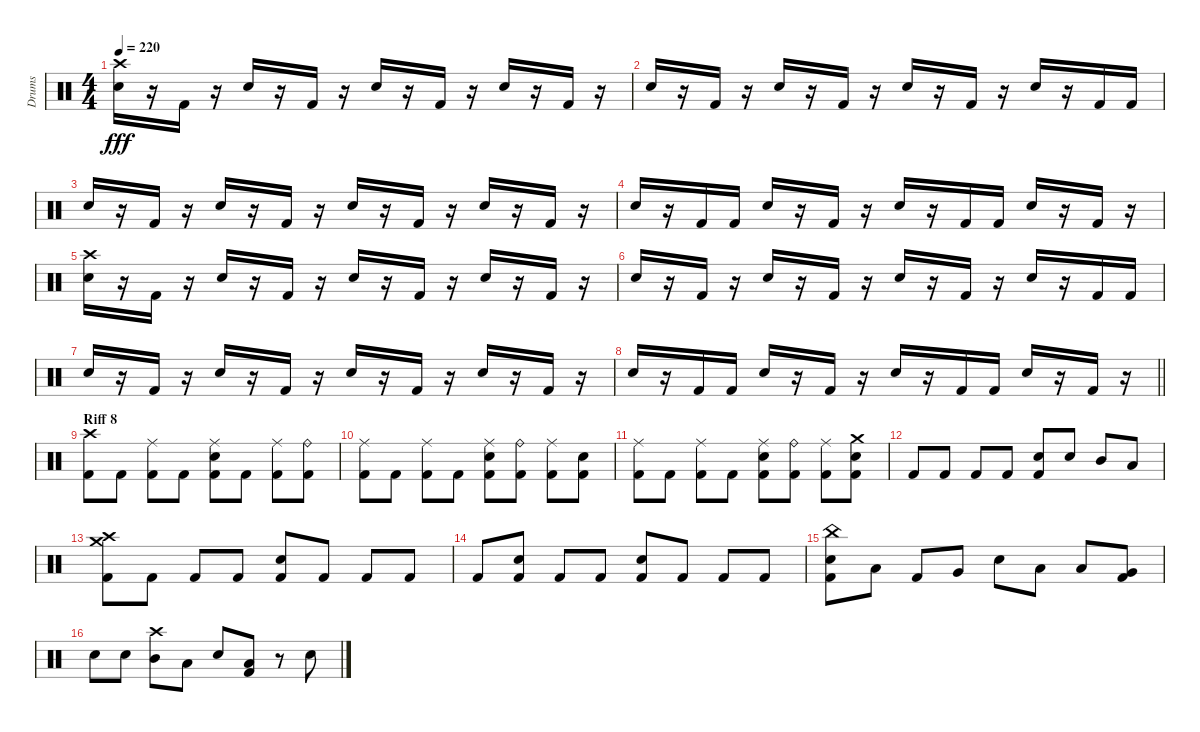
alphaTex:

\track ("Drums" "Drums") {instrument percussion}
\staff {score}
\articulation defaults
\ts (4 4)
\tempo 220
\clef neutral
\ks c
("Crash high (hit)" "Snare (hit) 2").16{dy fff} r.16 "Kick (hit) 2".16 r.16 "Snare (hit) 2".16 r.16 "Kick (hit) 2".16 r.16 "Snare (hit) 2".16 r.16 "Kick (hit) 2".16 r.16 "Snare (hit) 2".16 r.16 "Kick (hit) 2".16 r.16 |
"Snare (hit) 2".16 r.16 "Kick (hit) 2".16 r.16 "Snare (hit) 2".16 r.16 "Kick (hit) 2".16 r.16 "Snare (hit) 2".16 r.16 "Kick (hit) 2".16 r.16 "Snare (hit) 2".16 r.16 "Kick (hit) 2".16 "Kick (hit) 2".16 |
"Snare (hit) 2".16 r.16 "Kick (hit) 2".16 r.16 "Snare (hit) 2".16 r.16 "Kick (hit) 2".16 r.16 "Snare (hit) 2".16 r.16 "Kick (hit) 2".16 r.16 "Snare (hit) 2".16 r.16 "Kick (hit) 2".16 r.16 |
"Snare (hit) 2".16 r.16 "Kick (hit) 2".16 "Kick (hit) 2".16 "Snare (hit) 2".16 r.16 "Kick (hit) 2".16 r.16 "Snare (hit) 2".16 r.16 "Kick (hit) 2".16 "Kick (hit) 2".16 "Snare (hit) 2".16 r.16 "Kick (hit) 2".16 r.16 |
("Crash high (hit)" "Snare (hit) 2").16 r.16 "Kick (hit) 2".16 r.16 "Snare (hit) 2".16 r.16 "Kick (hit) 2".16 r.16 "Snare (hit) 2".16 r.16 "Kick (hit) 2".16 r.16 "Snare (hit) 2".16 r.16 "Kick (hit) 2".16 r.16 |
"Snare (hit) 2".16 r.16 "Kick (hit) 2".16 r.16 "Snare (hit) 2".16 r.16 "Kick (hit) 2".16 r.16 "Snare (hit) 2".16 r.16 "Kick (hit) 2".16 r.16 "Snare (hit) 2".16 r.16 "Kick (hit) 2".16 "Kick (hit) 2".16 |
"Snare (hit) 2".16 r.16 "Kick (hit) 2".16 r.16 "Snare (hit) 2".16 r.16 "Kick (hit) 2".16 r.16 "Snare (hit) 2".16 r.16 "Kick (hit) 2".16 r.16 "Snare (hit) 2".16 r.16 "Kick (hit) 2".16 r.16 |
\barLineRight lightlight "Snare (hit) 2".16
r.16 "Kick (hit) 2".16 "Kick (hit) 2".16 "Snare (hit) 2".16 r.16 "Kick (hit) 2".16 r.16 "Snare (hit) 2".16 r.16 "Kick (hit) 2".16 "Kick (hit) 2".16 "Snare (hit) 2".16 r.16 "Kick (hit) 2".16 r.16 |
\section ("" "Riff 8")
("Crash high (hit)" "Kick (hit) 2").8 "Kick (hit) 2".8 ("Kick (hit) 2" "Ride (middle)").8 "Kick (hit) 2".8 ("Kick (hit) 2" "Snare (hit) 2" "Ride (middle)").8 "Kick (hit) 2".8 ("Kick (hit) 2" "Ride (middle)").8 ("Kick (hit) 2" "Ride (bell)").8 |
("Kick (hit) 2" "Ride (middle)").8 "Kick (hit) 2".8 ("Kick (hit) 2" "Ride (middle)").8 "Kick (hit) 2".8 ("Kick (hit) 2" "Snare (hit) 2" "Ride (middle)").8 ("Kick (hit) 2" "Ride (bell)").8 ("Kick (hit) 2" "Ride (middle)").8 ("Kick (hit) 2" "Snare (hit) 2").8 |
("Kick (hit) 2" "Ride (middle)").8 "Kick (hit) 2".8 ("Kick (hit) 2" "Ride (middle)").8 "Kick (hit) 2".8 ("Kick (hit) 2" "Snare (hit) 2" "Ride (middle)").8 ("Kick (hit) 2" "Ride (bell)").8 ("Kick (hit) 2" "Ride (middle)").8 ("Crash medium (hit)" "Kick (hit) 2" "Snare (hit) 2").8 |
"Kick (hit) 2".8 "Kick (hit) 2".8 "Kick (hit) 2".8 "Kick (hit) 2".8 ("Kick (hit) 2" "Snare (hit) 2").8 "Snare (hit) 2".8 "Mid Tom (hit)".8 "Low Tom (hit)".8 |
("Crash high (hit)" "Crash medium (hit)" "Kick (hit) 2").8 "Kick (hit) 2".8 "Kick (hit) 2".8 "Kick (hit) 2".8 ("Kick (hit) 2" "Snare (hit) 2").8 "Kick (hit) 2".8 "Kick (hit) 2".8 "Kick (hit) 2".8 |
"Kick (hit) 2".8 ("Kick (hit) 2" "Snare (hit) 2").8 "Kick (hit) 2".8 "Kick (hit) 2".8 ("Kick (hit) 2" "Snare (hit) 2").8 "Kick (hit) 2".8 "Kick (hit) 2".8 "Kick (hit) 2".8 |
("China (hit)" "Kick (hit) 2" "Snare (hit) 2").8 "Low Tom (hit)".8 "Kick (hit) 2".8 "Very Low Tom (hit)".8 "Snare (hit) 2".8 "Low Tom (hit)".8 "Low Floor Tom (hit)".8 ("Kick (hit) 2" "Very Low Tom (hit)").8 |
"Snare (hit) 2".8 "Snare (hit) 2".8 ("Crash high (hit)" "Mid Tom (hit)").8 "Low Tom (hit)".8 "Snare (hit) 2".8 ("Kick (hit) 2" "Low Tom (hit)").8 r.8 "Snare (hit) 2".8
